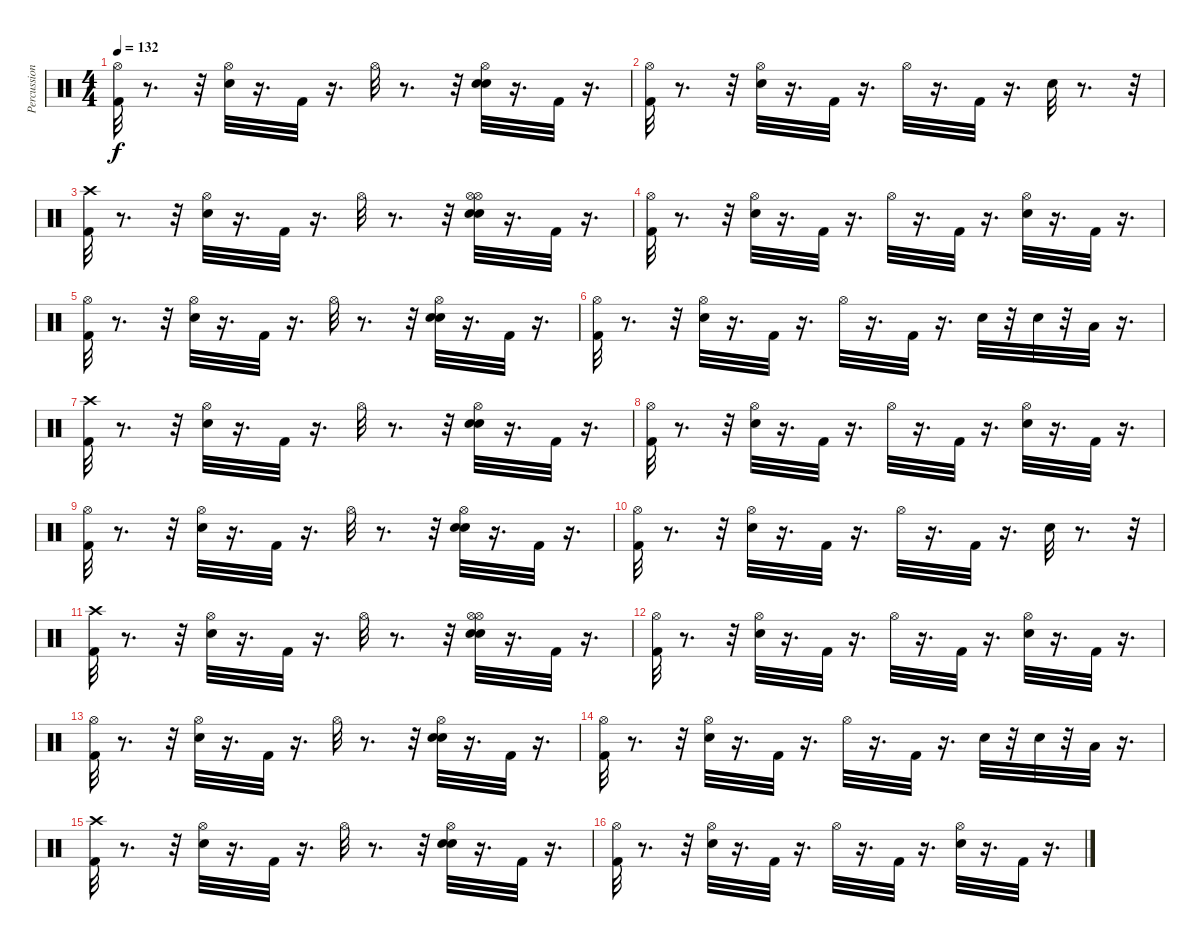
\track ("Percussion" "Percussion") {instrument percussion}
\staff {score}
\articulation defaults
\ts (4 4)
\tempo 132
\clef neutral
\ks c
("Hi-Hat (open)" "Kick (hit) 2").32{dy f} r.8{d} r.32 ("Snare (hit) 2" "Hi-Hat (open)").32 r.16{d} "Kick (hit) 2".32 r.16{d} "Hi-Hat (open)".32 r.8{d} r.32 ("Snare (hit) 2" "Hi-Hat (open)" "Snare (hit) 2").32 r.16{d} "Kick (hit) 2".32 r.16{d} |
("Hi-Hat (open)" "Kick (hit) 2").32 r.8{d} r.32 ("Snare (hit) 2" "Hi-Hat (open)").32 r.16{d} "Kick (hit) 2".32 r.16{d} "Hi-Hat (open)".32 r.16{d} "Kick (hit) 2".32 r.16{d} "Snare (hit) 2".32 r.8{d} r.32 |
("Kick (hit) 2" "Crash high (hit)").32 r.8{d} r.32 ("Snare (hit) 2" "Hi-Hat (open)").32 r.16{d} "Kick (hit) 2".32 r.16{d} "Hi-Hat (open)".32 r.8{d} r.32 ("Snare (hit) 2" "Hi-Hat (open)" "Snare (hit) 2" "Hi-Hat (open)").32 r.16{d} "Kick (hit) 2".32 r.16{d} |
("Kick (hit) 2" "Hi-Hat (open)").32 r.8{d} r.32 ("Snare (hit) 2" "Hi-Hat (open)").32 r.16{d} "Kick (hit) 2".32 r.16{d} "Hi-Hat (open)".32 r.16{d} "Kick (hit) 2".32 r.16{d} ("Snare (hit) 2" "Hi-Hat (open)").32 r.16{d} "Kick (hit) 2".32 r.16{d} |
("Hi-Hat (open)" "Kick (hit) 2").32 r.8{d} r.32 ("Snare (hit) 2" "Hi-Hat (open)").32 r.16{d} "Kick (hit) 2".32 r.16{d} "Hi-Hat (open)".32 r.8{d} r.32 ("Snare (hit) 2" "Hi-Hat (open)" "Snare (hit) 2").32 r.16{d} "Kick (hit) 2".32 r.16{d} |
("Kick (hit) 2" "Hi-Hat (open)").32 r.8{d} r.32 ("Snare (hit) 2" "Hi-Hat (open)").32 r.16{d} "Kick (hit) 2".32 r.16{d} "Hi-Hat (open)".32 r.16{d} "Kick (hit) 2".32 r.16{d} "Snare (hit) 2".32 r.32 "Snare (hit) 2".32 r.32 "Low Floor Tom (hit)".32 r.16{d} |
("Kick (hit) 2" "Crash high (hit)").32 r.8{d} r.32 ("Snare (hit) 2" "Hi-Hat (open)").32 r.16{d} "Kick (hit) 2".32 r.16{d} "Hi-Hat (open)".32 r.8{d} r.32 ("Snare (hit) 2" "Hi-Hat (open)" "Snare (hit) 2").32 r.16{d} "Kick (hit) 2".32 r.16{d} |
("Kick (hit) 2" "Hi-Hat (open)").32 r.8{d} r.32 ("Snare (hit) 2" "Hi-Hat (open)").32 r.16{d} "Kick (hit) 2".32 r.16{d} "Hi-Hat (open)".32 r.16{d} "Kick (hit) 2".32 r.16{d} ("Hi-Hat (open)" "Snare (hit) 2").32 r.16{d} "Kick (hit) 2".32 r.16{d} |
("Hi-Hat (open)" "Kick (hit) 2").32 r.8{d} r.32 ("Snare (hit) 2" "Hi-Hat (open)").32 r.16{d} "Kick (hit) 2".32 r.16{d} "Hi-Hat (open)".32 r.8{d} r.32 ("Snare (hit) 2" "Snare (hit) 2" "Hi-Hat (open)").32 r.16{d} "Kick (hit) 2".32 r.16{d} |
("Hi-Hat (open)" "Kick (hit) 2").32 r.8{d} r.32 ("Snare (hit) 2" "Hi-Hat (open)").32 r.16{d} "Kick (hit) 2".32 r.16{d} "Hi-Hat (open)".32 r.16{d} "Kick (hit) 2".32 r.16{d} "Snare (hit) 2".32 r.8{d} r.32 |
("Kick (hit) 2" "Crash high (hit)").32 r.8{d} r.32 ("Snare (hit) 2" "Hi-Hat (open)").32 r.16{d} "Kick (hit) 2".32 r.16{d} "Hi-Hat (open)".32 r.8{d} r.32 ("Snare (hit) 2" "Hi-Hat (open)" "Snare (hit) 2" "Hi-Hat (open)").32 r.16{d} "Kick (hit) 2".32 r.16{d} |
("Kick (hit) 2" "Hi-Hat (open)").32 r.8{d} r.32 ("Snare (hit) 2" "Hi-Hat (open)").32 r.16{d} "Kick (hit) 2".32 r.16{d} "Hi-Hat (open)".32 r.16{d} "Kick (hit) 2".32 r.16{d} ("Snare (hit) 2" "Hi-Hat (open)").32 r.16{d} "Kick (hit) 2".32 r.16{d} |
("Hi-Hat (open)" "Kick (hit) 2").32 r.8{d} r.32 ("Snare (hit) 2" "Hi-Hat (open)").32 r.16{d} "Kick (hit) 2".32 r.16{d} "Hi-Hat (open)".32 r.8{d} r.32 ("Snare (hit) 2" "Hi-Hat (open)" "Snare (hit) 2").32 r.16{d} "Kick (hit) 2".32 r.16{d} |
("Kick (hit) 2" "Hi-Hat (open)").32 r.8{d} r.32 ("Snare (hit) 2" "Hi-Hat (open)").32 r.16{d} "Kick (hit) 2".32 r.16{d} "Hi-Hat (open)".32 r.16{d} "Kick (hit) 2".32 r.16{d} "Snare (hit) 2".32 r.32 "Snare (hit) 2".32 r.32 "Low Floor Tom (hit)".32 r.16{d} |
("Kick (hit) 2" "Crash high (hit)").32 r.8{d} r.32 ("Snare (hit) 2" "Hi-Hat (open)").32 r.16{d} "Kick (hit) 2".32 r.16{d} "Hi-Hat (open)".32 r.8{d} r.32 ("Snare (hit) 2" "Hi-Hat (open)" "Snare (hit) 2").32 r.16{d} "Kick (hit) 2".32 r.16{d} |
("Kick (hit) 2" "Hi-Hat (open)").32 r.8{d} r.32 ("Snare (hit) 2" "Hi-Hat (open)").32 r.16{d} "Kick (hit) 2".32 r.16{d} "Hi-Hat (open)".32 r.16{d} "Kick (hit) 2".32 r.16{d} ("Hi-Hat (open)" "Snare (hit) 2").32 r.16{d} "Kick (hit) 2".32 r.16{d}
